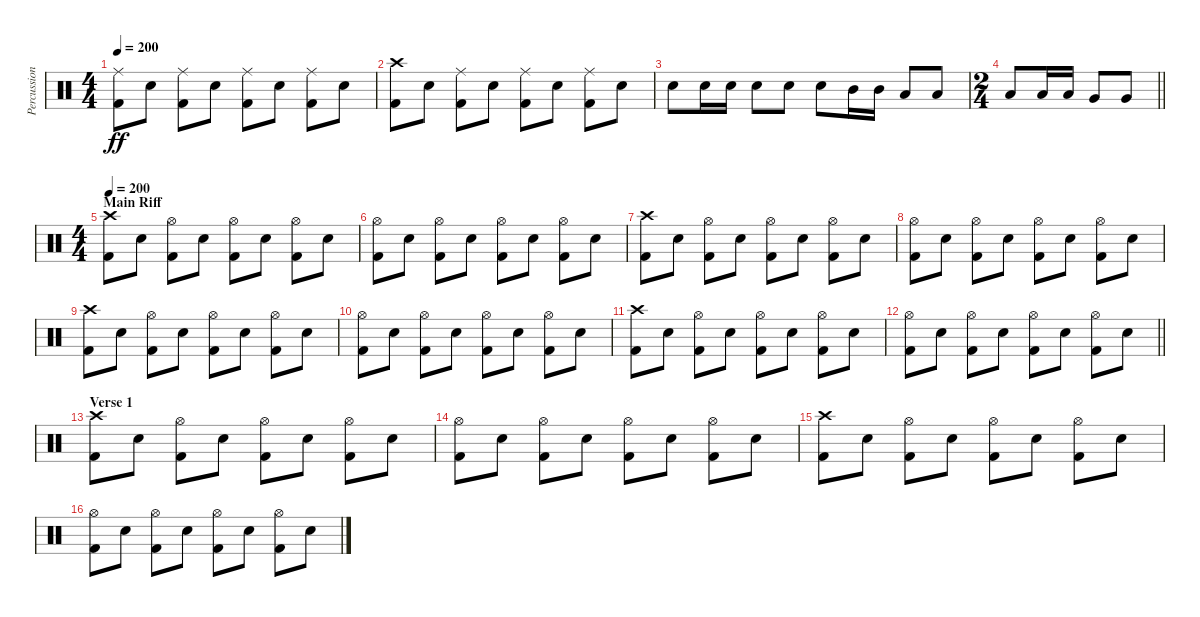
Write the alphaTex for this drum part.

\track ("Percussion" "Percussion") {instrument percussion}
\staff {score}
\articulation defaults
\ts (4 4)
\tempo 200
\clef neutral
\ks c
("Ride (middle)" "Kick (hit) 2").8{dy ff} "Snare (hit) 2".8 ("Ride (middle)" "Kick (hit) 2").8 "Snare (hit) 2".8 ("Ride (middle)" "Kick (hit) 2").8 "Snare (hit) 2".8 ("Ride (middle)" "Kick (hit) 2").8 "Snare (hit) 2".8 |
("Crash high (hit)" "Kick (hit) 2").8 "Snare (hit) 2".8 ("Ride (middle)" "Kick (hit) 2").8 "Snare (hit) 2".8 ("Ride (middle)" "Kick (hit) 2").8 "Snare (hit) 2".8 ("Ride (middle)" "Kick (hit) 2").8 "Snare (hit) 2".8 |
"Snare (hit) 2".8 "Snare (hit) 2".16 "Snare (hit) 2".16 "Snare (hit) 2".8 "Snare (hit) 2".8 "Snare (hit) 2".8 "Mid Tom (hit)".16 "Mid Tom (hit)".16 "Low Tom (hit)".8 "Low Tom (hit)".8 |
\ts (2 4)
\barLineRight lightlight "Low Tom (hit)".8 "Low Tom (hit)".16 "Low Tom (hit)".16 "Very Low Tom (hit)".8 "Very Low Tom (hit)".8
|
\ts (4 4)
\section ("" "Main Riff")
\tempo 200
("Crash high (hit)" "Kick (hit) 2").8 "Snare (hit) 2".8 ("Hi-Hat (open)" "Kick (hit) 2").8 "Snare (hit) 2".8 ("Hi-Hat (open)" "Kick (hit) 2").8 "Snare (hit) 2".8 ("Hi-Hat (open)" "Kick (hit) 2").8 "Snare (hit) 2".8 |
("Hi-Hat (open)" "Kick (hit) 2").8 "Snare (hit) 2".8 ("Hi-Hat (open)" "Kick (hit) 2").8 "Snare (hit) 2".8 ("Hi-Hat (open)" "Kick (hit) 2").8 "Snare (hit) 2".8 ("Hi-Hat (open)" "Kick (hit) 2").8 "Snare (hit) 2".8 |
("Crash high (hit)" "Kick (hit) 2").8 "Snare (hit) 2".8 ("Hi-Hat (open)" "Kick (hit) 2").8 "Snare (hit) 2".8 ("Hi-Hat (open)" "Kick (hit) 2").8 "Snare (hit) 2".8 ("Hi-Hat (open)" "Kick (hit) 2").8 "Snare (hit) 2".8 |
("Hi-Hat (open)" "Kick (hit) 2").8 "Snare (hit) 2".8 ("Hi-Hat (open)" "Kick (hit) 2").8 "Snare (hit) 2".8 ("Hi-Hat (open)" "Kick (hit) 2").8 "Snare (hit) 2".8 ("Hi-Hat (open)" "Kick (hit) 2").8 "Snare (hit) 2".8 |
("Crash high (hit)" "Kick (hit) 2").8 "Snare (hit) 2".8 ("Hi-Hat (open)" "Kick (hit) 2").8 "Snare (hit) 2".8 ("Hi-Hat (open)" "Kick (hit) 2").8 "Snare (hit) 2".8 ("Hi-Hat (open)" "Kick (hit) 2").8 "Snare (hit) 2".8 |
("Hi-Hat (open)" "Kick (hit) 2").8 "Snare (hit) 2".8 ("Hi-Hat (open)" "Kick (hit) 2").8 "Snare (hit) 2".8 ("Hi-Hat (open)" "Kick (hit) 2").8 "Snare (hit) 2".8 ("Hi-Hat (open)" "Kick (hit) 2").8 "Snare (hit) 2".8 |
("Crash high (hit)" "Kick (hit) 2").8 "Snare (hit) 2".8 ("Hi-Hat (open)" "Kick (hit) 2").8 "Snare (hit) 2".8 ("Hi-Hat (open)" "Kick (hit) 2").8 "Snare (hit) 2".8 ("Hi-Hat (open)" "Kick (hit) 2").8 "Snare (hit) 2".8 |
\barLineRight lightlight
("Hi-Hat (open)" "Kick (hit) 2").8 "Snare (hit) 2".8 ("Hi-Hat (open)" "Kick (hit) 2").8 "Snare (hit) 2".8 ("Hi-Hat (open)" "Kick (hit) 2").8 "Snare (hit) 2".8 ("Hi-Hat (open)" "Kick (hit) 2").8 "Snare (hit) 2".8 |
\section ("" "Verse 1")
("Crash high (hit)" "Kick (hit) 2").8 "Snare (hit) 2".8 ("Hi-Hat (open)" "Kick (hit) 2").8 "Snare (hit) 2".8 ("Hi-Hat (open)" "Kick (hit) 2").8 "Snare (hit) 2".8 ("Hi-Hat (open)" "Kick (hit) 2").8 "Snare (hit) 2".8 |
("Hi-Hat (open)" "Kick (hit) 2").8 "Snare (hit) 2".8 ("Hi-Hat (open)" "Kick (hit) 2").8 "Snare (hit) 2".8 ("Hi-Hat (open)" "Kick (hit) 2").8 "Snare (hit) 2".8 ("Hi-Hat (open)" "Kick (hit) 2").8 "Snare (hit) 2".8 |
("Crash high (hit)" "Kick (hit) 2").8 "Snare (hit) 2".8 ("Hi-Hat (open)" "Kick (hit) 2").8 "Snare (hit) 2".8 ("Hi-Hat (open)" "Kick (hit) 2").8 "Snare (hit) 2".8 ("Hi-Hat (open)" "Kick (hit) 2").8 "Snare (hit) 2".8 |
("Hi-Hat (open)" "Kick (hit) 2").8 "Snare (hit) 2".8 ("Hi-Hat (open)" "Kick (hit) 2").8 "Snare (hit) 2".8 ("Hi-Hat (open)" "Kick (hit) 2").8 "Snare (hit) 2".8 ("Hi-Hat (open)" "Kick (hit) 2").8 "Snare (hit) 2".8
